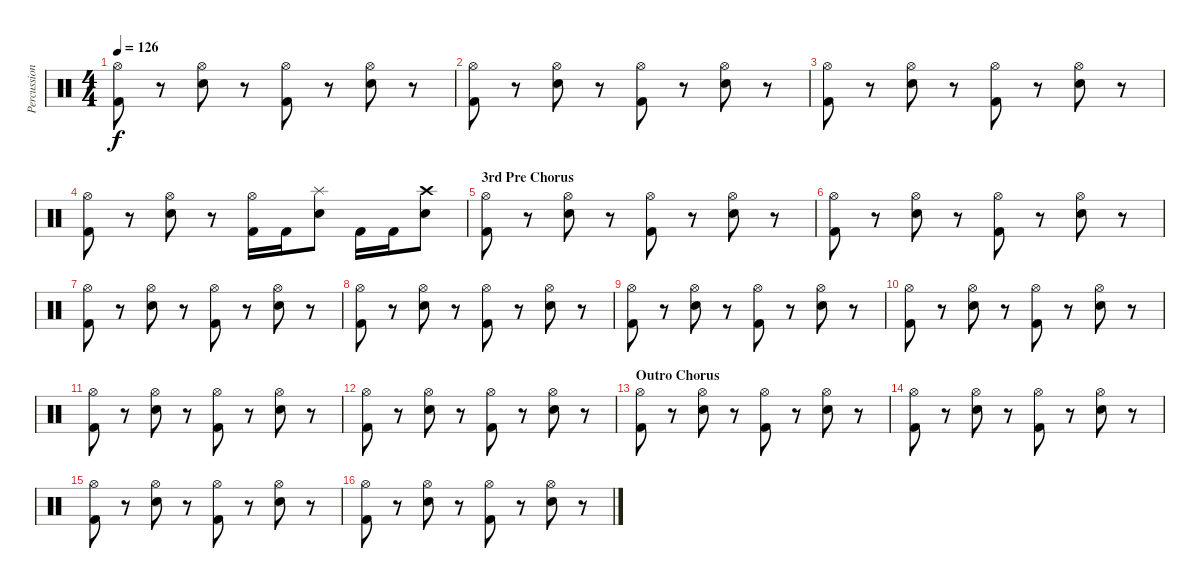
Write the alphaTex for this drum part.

\track ("Percussion" "Percussion") {instrument percussion}
\staff {score}
\articulation defaults
\ts (4 4)
\tempo 126
\clef neutral
\ks c
("Hi-Hat (open)" "Kick (hit) 2").8{dy f} r.8 ("Hi-Hat (open)" "Snare (hit) 2").8 r.8 ("Hi-Hat (open)" "Kick (hit) 2").8 r.8 ("Hi-Hat (open)" "Snare (hit) 2").8 r.8 |
("Hi-Hat (open)" "Kick (hit) 2").8 r.8 ("Hi-Hat (open)" "Snare (hit) 2").8 r.8 ("Hi-Hat (open)" "Kick (hit) 2").8 r.8 ("Hi-Hat (open)" "Snare (hit) 2").8 r.8 |
("Hi-Hat (open)" "Kick (hit) 2").8 r.8 ("Hi-Hat (open)" "Snare (hit) 2").8 r.8 ("Hi-Hat (open)" "Kick (hit) 2").8 r.8 ("Hi-Hat (open)" "Snare (hit) 2").8 r.8 |
("Hi-Hat (open)" "Kick (hit) 2").8 r.8 ("Hi-Hat (open)" "Snare (hit) 2").8 r.8 ("Hi-Hat (open)" "Kick (hit) 2").16 "Kick (hit) 2".16 ("Splash (hit)" "Snare (hit) 2").8 "Kick (hit) 2".16 "Kick (hit) 2".16 ("Crash high (hit)" "Snare (hit) 2").8 |
\section ("" "3rd Pre Chorus")
("Hi-Hat (open)" "Kick (hit) 2").8 r.8 ("Hi-Hat (open)" "Snare (hit) 2").8 r.8 ("Hi-Hat (open)" "Kick (hit) 2").8 r.8 ("Hi-Hat (open)" "Snare (hit) 2").8 r.8 |
("Hi-Hat (open)" "Kick (hit) 2").8 r.8 ("Hi-Hat (open)" "Snare (hit) 2").8 r.8 ("Hi-Hat (open)" "Kick (hit) 2").8 r.8 ("Hi-Hat (open)" "Snare (hit) 2").8 r.8 |
("Hi-Hat (open)" "Kick (hit) 2").8 r.8 ("Hi-Hat (open)" "Snare (hit) 2").8 r.8 ("Hi-Hat (open)" "Kick (hit) 2").8 r.8 ("Hi-Hat (open)" "Snare (hit) 2").8 r.8 |
("Hi-Hat (open)" "Kick (hit) 2").8 r.8 ("Hi-Hat (open)" "Snare (hit) 2").8 r.8 ("Hi-Hat (open)" "Kick (hit) 2").8 r.8 ("Hi-Hat (open)" "Snare (hit) 2").8 r.8 |
("Hi-Hat (open)" "Kick (hit) 2").8 r.8 ("Hi-Hat (open)" "Snare (hit) 2").8 r.8 ("Hi-Hat (open)" "Kick (hit) 2").8 r.8 ("Hi-Hat (open)" "Snare (hit) 2").8 r.8 |
("Hi-Hat (open)" "Kick (hit) 2").8 r.8 ("Hi-Hat (open)" "Snare (hit) 2").8 r.8 ("Hi-Hat (open)" "Kick (hit) 2").8 r.8 ("Hi-Hat (open)" "Snare (hit) 2").8 r.8 |
("Hi-Hat (open)" "Kick (hit) 2").8 r.8 ("Hi-Hat (open)" "Snare (hit) 2").8 r.8 ("Hi-Hat (open)" "Kick (hit) 2").8 r.8 ("Hi-Hat (open)" "Snare (hit) 2").8 r.8 |
("Hi-Hat (open)" "Kick (hit) 2").8 r.8 ("Hi-Hat (open)" "Snare (hit) 2").8 r.8 ("Hi-Hat (open)" "Kick (hit) 2").8 r.8 ("Hi-Hat (open)" "Snare (hit) 2").8 r.8 |
\section ("" "Outro Chorus")
("Hi-Hat (open)" "Kick (hit) 2").8 r.8 ("Hi-Hat (open)" "Snare (hit) 2").8 r.8 ("Hi-Hat (open)" "Kick (hit) 2").8 r.8 ("Hi-Hat (open)" "Snare (hit) 2").8 r.8 |
("Hi-Hat (open)" "Kick (hit) 2").8 r.8 ("Hi-Hat (open)" "Snare (hit) 2").8 r.8 ("Hi-Hat (open)" "Kick (hit) 2").8 r.8 ("Hi-Hat (open)" "Snare (hit) 2").8 r.8 |
("Hi-Hat (open)" "Kick (hit) 2").8 r.8 ("Hi-Hat (open)" "Snare (hit) 2").8 r.8 ("Hi-Hat (open)" "Kick (hit) 2").8 r.8 ("Hi-Hat (open)" "Snare (hit) 2").8 r.8 |
("Hi-Hat (open)" "Kick (hit) 2").8 r.8 ("Hi-Hat (open)" "Snare (hit) 2").8 r.8 ("Hi-Hat (open)" "Kick (hit) 2").8 r.8 ("Hi-Hat (open)" "Snare (hit) 2").8 r.8
